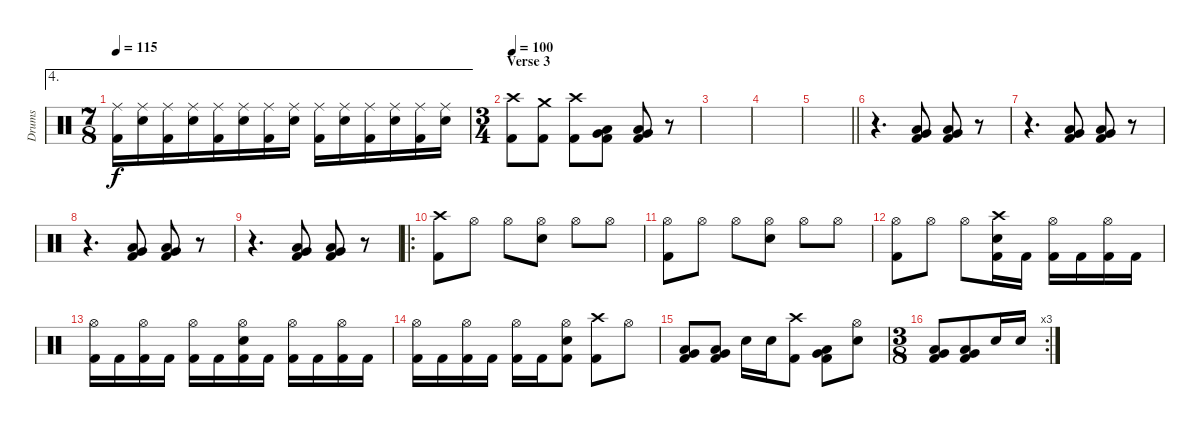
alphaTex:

\track ("Drums" "Drums") {instrument percussion}
\staff {score}
\articulation defaults
\ae 4
\ts (7 8)
\tempo 115
\clef neutral
\ks c
("Ride (middle)" "Kick (hit) 2").16{dy f} ("Ride (middle)" "Electric Snare (hit)").16 ("Ride (middle)" "Kick (hit) 2").16 ("Ride (middle)" "Electric Snare (hit)").16 ("Ride (middle)" "Kick (hit) 2").16 ("Ride (middle)" "Electric Snare (hit)").16 ("Ride (middle)" "Kick (hit) 2").16 ("Ride (middle)" "Electric Snare (hit)").16 ("Ride (middle)" "Kick (hit) 2").16 ("Ride (middle)" "Electric Snare (hit)").16 ("Ride (middle)" "Kick (hit) 2").16 ("Ride (middle)" "Electric Snare (hit)").16 ("Ride (middle)" "Kick (hit) 2").16 ("Ride (middle)" "Electric Snare (hit)").16 |
\ts (3 4)
\section ("" "Verse 3")
\tempo 100
("Crash high (hit)" "Kick (hit) 2").8 ("Crash medium (hit)" "Kick (hit) 2").8 ("Crash high (hit)" "Kick (hit) 2").8 ("Very Low Tom (hit)" "Low Floor Tom (hit)" "Kick (hit) 2").8 ("Very Low Tom (hit)" "Low Floor Tom (hit)" "Kick (hit) 2").8 r.8 |
|
|
\barLineRight lightlight
|
r.4{d} ("Very Low Tom (hit)" "Low Floor Tom (hit)" "Kick (hit) 2").8 ("Very Low Tom (hit)" "Low Floor Tom (hit)" "Kick (hit) 2").8 r.8 |
r.4{d} ("Very Low Tom (hit)" "Low Floor Tom (hit)" "Kick (hit) 2").8 ("Very Low Tom (hit)" "Low Floor Tom (hit)" "Kick (hit) 2").8 r.8 |
r.4{d} ("Very Low Tom (hit)" "Low Floor Tom (hit)" "Kick (hit) 2").8 ("Very Low Tom (hit)" "Low Floor Tom (hit)" "Kick (hit) 2").8 r.8 |
r.4{d} ("Very Low Tom (hit)" "Low Floor Tom (hit)" "Kick (hit) 2").8 ("Very Low Tom (hit)" "Low Floor Tom (hit)" "Kick (hit) 2").8 r.8 |
\ro
("Crash high (hit)" "Kick (hit) 2").8 "Hi-Hat (open)".8 "Hi-Hat (open)".8 ("Hi-Hat (open)" "Electric Snare (hit)").8 "Hi-Hat (open)".8 "Hi-Hat (open)".8 |
("Hi-Hat (open)" "Kick (hit) 2").8 "Hi-Hat (open)".8 "Hi-Hat (open)".8 ("Hi-Hat (open)" "Electric Snare (hit)").8 "Hi-Hat (open)".8 "Hi-Hat (open)".8 |
("Hi-Hat (open)" "Kick (hit) 2").8 "Hi-Hat (open)".8 "Hi-Hat (open)".8 ("Crash high (hit)" "Electric Snare (hit)" "Kick (hit) 2").16 "Kick (hit) 2".16 ("Hi-Hat (open)" "Kick (hit) 2").16 "Kick (hit) 2".16 ("Hi-Hat (open)" "Kick (hit) 2").16 "Kick (hit) 2".16 |
("Hi-Hat (open)" "Kick (hit) 2").16 "Kick (hit) 2".16 ("Hi-Hat (open)" "Kick (hit) 2").16 "Kick (hit) 2".16 ("Hi-Hat (open)" "Kick (hit) 2").16 "Kick (hit) 2".16 ("Hi-Hat (open)" "Electric Snare (hit)" "Kick (hit) 2").16 "Kick (hit) 2".16 ("Hi-Hat (open)" "Kick (hit) 2").16 "Kick (hit) 2".16 ("Hi-Hat (open)" "Kick (hit) 2").16 "Kick (hit) 2".16 |
("Hi-Hat (open)" "Kick (hit) 2").16 "Kick (hit) 2".16 ("Hi-Hat (open)" "Kick (hit) 2").16 "Kick (hit) 2".16 ("Hi-Hat (open)" "Kick (hit) 2").16 "Kick (hit) 2".16 ("Hi-Hat (open)" "Electric Snare (hit)" "Kick (hit) 2").8 ("Crash high (hit)" "Kick (hit) 2").8 "Hi-Hat (open)".8 |
("Very Low Tom (hit)" "Low Floor Tom (hit)" "Kick (hit) 2").8 ("Very Low Tom (hit)" "Low Floor Tom (hit)" "Kick (hit) 2").8 "Electric Snare (hit)".16 "Electric Snare (hit)".16 ("Crash high (hit)" "Kick (hit) 2").8 ("Very Low Tom (hit)" "Low Floor Tom (hit)" "Kick (hit) 2").8 ("Hi-Hat (open)" "Electric Snare (hit)").8 |
\rc 3
\ts (3 8)
("Very Low Tom (hit)" "Low Floor Tom (hit)" "Kick (hit) 2").8 ("Very Low Tom (hit)" "Low Floor Tom (hit)" "Kick (hit) 2").8 "Electric Snare (hit)".16 "Electric Snare (hit)".16
